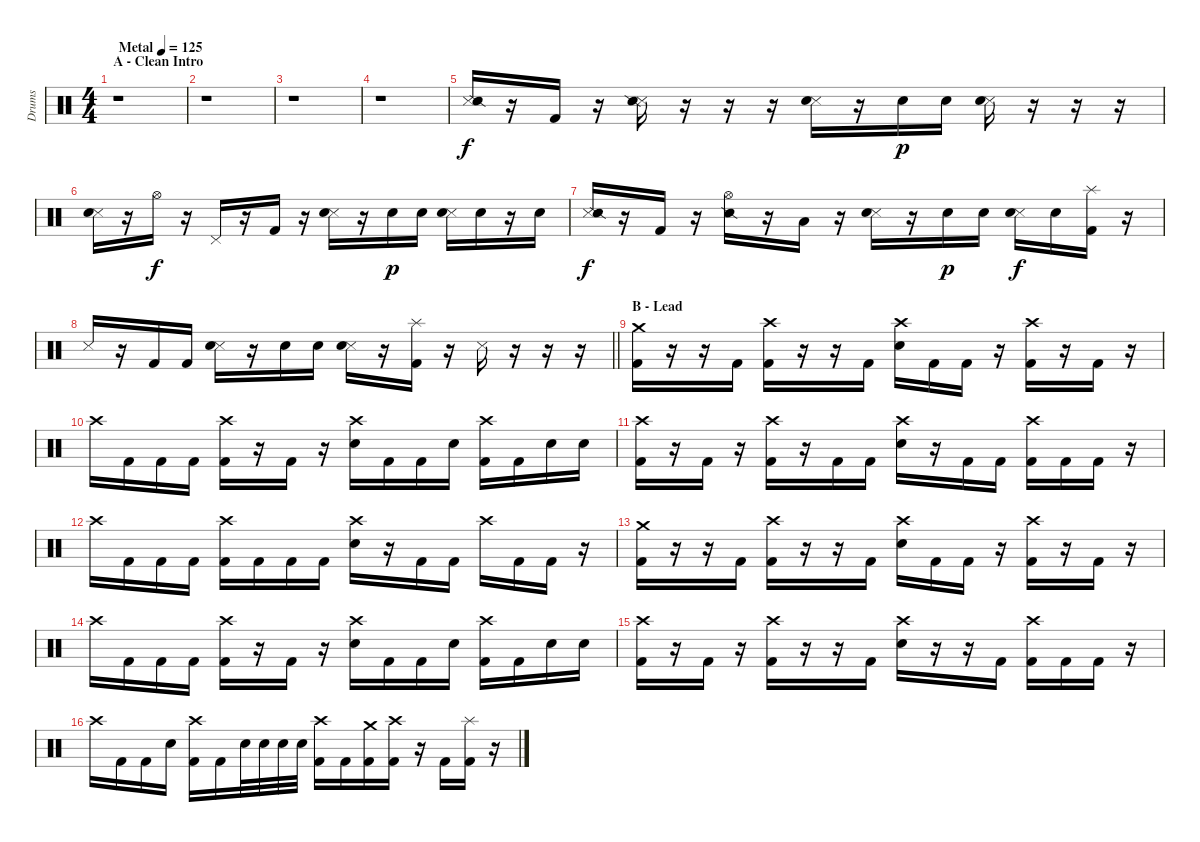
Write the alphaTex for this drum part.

\track ("Drums" "Drums") {instrument percussion}
\staff {score}
\articulation defaults
\ts (4 4)
\section ("" "A - Clean Intro")
\tempo (125 "Metal")
\clef neutral
\ks c
r.1{dy f} |
r.1 |
r.1 |
r.1 |
("Snare (side stick) 3" "Snare (side stick) 2").16 r.16 "Kick (hit) 2".16 r.16 ("Snare (side stick) 3" "Snare (side stick) 2").16 r.16 r.16 r.16 ("Snare (side stick) 3" "Electric Snare (hit)").16 r.16 "Electric Snare (hit)".16{dy p} "Electric Snare (hit)".16 ("Snare (side stick) 3" "Electric Snare (hit)").16 r.16 r.16 r.16 |
("Snare (side stick) 3" "Electric Snare (hit)").16 r.16 "Hi-Hat (open)".16{dy f} r.16 "Pedal Hi-Hat (hit)".16 r.16 "Kick (hit) 2".16 r.16 ("Snare (side stick) 3" "Electric Snare (hit)").16 r.16 "Electric Snare (hit)".16{dy p} "Electric Snare (hit)".16 ("Snare (side stick) 3" "Electric Snare (hit)").16 "Electric Snare (hit)".16 r.16 "Electric Snare (hit)".16 |
("Snare (side stick) 3" "Snare (side stick) 2").16{dy f} r.16 "Kick (hit) 2".16 r.16 ("Hi-Hat (open)" "Snare (side stick) 2").16 r.16 "Low Tom (hit)".16 r.16 ("Snare (side stick) 3" "Electric Snare (hit)").16 r.16 "Electric Snare (hit)".16{dy p} "Electric Snare (hit)".16 ("Snare (side stick) 3" "Electric Snare (hit)").16{dy f} "Electric Snare (hit)".16 ("Splash (hit)" "Kick (hit) 2").16 r.16 |
\barLineRight lightlight "Snare (side stick) 3".16
r.16 "Kick (hit) 2".16 "Kick (hit) 2".16 ("Snare (side stick) 3" "Electric Snare (hit)").16 r.16 "Electric Snare (hit)".16 "Electric Snare (hit)".16 ("Snare (side stick) 3" "Electric Snare (hit)").16 r.16 ("Splash (hit)" "Kick (hit) 2").16 r.16 "Snare (side stick) 3".16 r.16 r.16 r.16 |
\section ("" "B - Lead")
("Crash medium (hit)" "Kick (hit) 2").16 r.16 r.16 "Kick (hit) 2".16 ("Crash high (hit)" "Kick (hit) 2").16 r.16 r.16 "Kick (hit) 2".16 ("Crash high (hit)" "Electric Snare (hit)").16 "Kick (hit) 2".16 "Kick (hit) 2".16 r.16 ("Crash high (hit)" "Kick (hit) 2").16 r.16 "Kick (hit) 2".16 r.16 |
"Crash high (hit)".16 "Kick (hit) 2".16 "Kick (hit) 2".16 "Kick (hit) 2".16 ("Crash high (hit)" "Kick (hit) 2").16 r.16 "Kick (hit) 2".16 r.16 ("Crash high (hit)" "Electric Snare (hit)").16 "Kick (hit) 2".16 "Kick (hit) 2".16 "Electric Snare (hit)".16 ("Crash high (hit)" "Kick (hit) 2").16 "Kick (hit) 2".16 "Electric Snare (hit)".16 "Electric Snare (hit)".16 |
("Crash high (hit)" "Kick (hit) 2").16 r.16 "Kick (hit) 2".16 r.16 ("Crash high (hit)" "Kick (hit) 2").16 r.16 "Kick (hit) 2".16 "Kick (hit) 2".16 ("Crash high (hit)" "Electric Snare (hit)").16 r.16 "Kick (hit) 2".16 "Kick (hit) 2".16 ("Crash high (hit)" "Kick (hit) 2").16 "Kick (hit) 2".16 "Kick (hit) 2".16 r.16 |
"Crash high (hit)".16 "Kick (hit) 2".16 "Kick (hit) 2".16 "Kick (hit) 2".16 ("Crash high (hit)" "Kick (hit) 2").16 "Kick (hit) 2".16 "Kick (hit) 2".16 "Kick (hit) 2".16 ("Crash high (hit)" "Electric Snare (hit)").16 r.16 "Kick (hit) 2".16 "Kick (hit) 2".16 "Crash high (hit)".16 "Kick (hit) 2".16 "Kick (hit) 2".16 r.16 |
("Crash medium (hit)" "Kick (hit) 2").16 r.16 r.16 "Kick (hit) 2".16 ("Crash high (hit)" "Kick (hit) 2").16 r.16 r.16 "Kick (hit) 2".16 ("Crash high (hit)" "Electric Snare (hit)").16 "Kick (hit) 2".16 "Kick (hit) 2".16 r.16 ("Crash high (hit)" "Kick (hit) 2").16 r.16 "Kick (hit) 2".16 r.16 |
"Crash high (hit)".16 "Kick (hit) 2".16 "Kick (hit) 2".16 "Kick (hit) 2".16 ("Crash high (hit)" "Kick (hit) 2").16 r.16 "Kick (hit) 2".16 r.16 ("Crash high (hit)" "Electric Snare (hit)").16 "Kick (hit) 2".16 "Kick (hit) 2".16 "Electric Snare (hit)".16 ("Crash high (hit)" "Kick (hit) 2").16 "Kick (hit) 2".16 "Electric Snare (hit)".16 "Electric Snare (hit)".16 |
("Crash high (hit)" "Kick (hit) 2").16 r.16 "Kick (hit) 2".16 r.16 ("Crash high (hit)" "Kick (hit) 2").16 r.16 r.16 "Kick (hit) 2".16 ("Crash high (hit)" "Electric Snare (hit)").16 r.16 r.16 "Kick (hit) 2".16 ("Crash high (hit)" "Kick (hit) 2").16 "Kick (hit) 2".16 "Kick (hit) 2".16 r.16 |
"Crash high (hit)".16 "Kick (hit) 2".16 "Kick (hit) 2".16 "Electric Snare (hit)".16 ("Crash high (hit)" "Kick (hit) 2").16 "Kick (hit) 2".16 "Electric Snare (hit)".32 "Electric Snare (hit)".32 "Electric Snare (hit)".32 "Electric Snare (hit)".32 ("Crash high (hit)" "Kick (hit) 2").16 "Kick (hit) 2".16 ("Crash medium (hit)" "Kick (hit) 2").16 ("Crash high (hit)" "Kick (hit) 2").16 r.16 "Kick (hit) 2".16 ("Splash (hit)" "Kick (hit) 2").16 r.16
